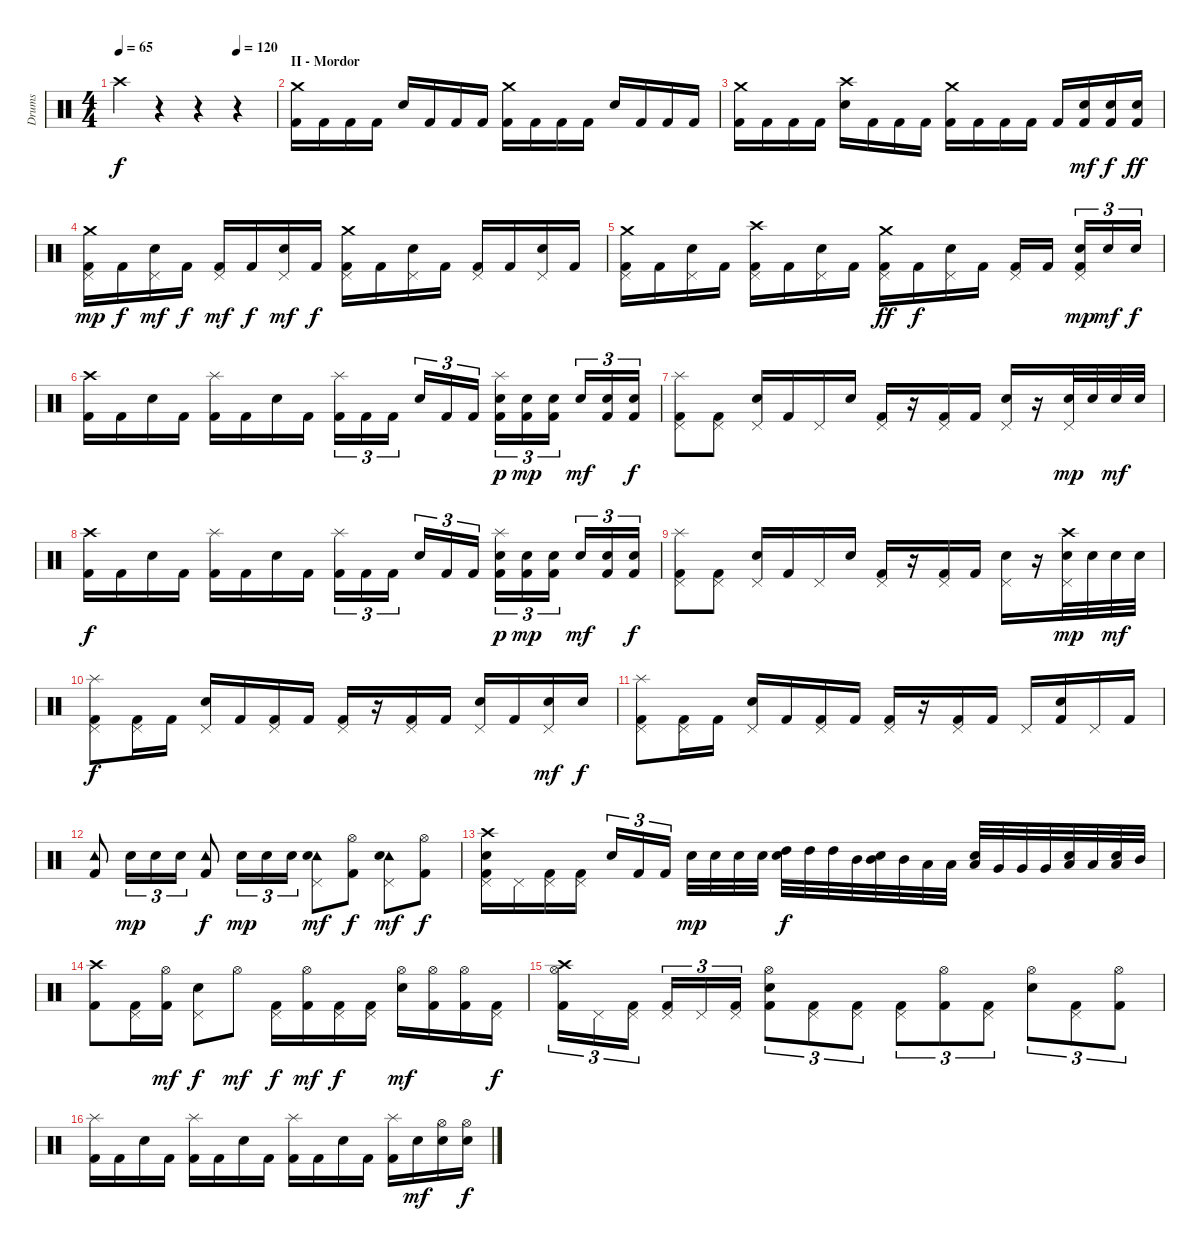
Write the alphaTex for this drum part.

\track ("Drums" "Drums") {instrument percussion}
\staff {score}
\articulation defaults
\ts (4 4)
\tempo 65
\tempo (120 0.75)
\clef neutral
\ks c "Crash high (hit)".4{dy f}
r.4 r.4 r.4 |
\section ("" "II - Mordor")
("Crash medium (hit)" "Kick (hit) 2").16 "Kick (hit) 2".16 "Kick (hit) 2".16 "Kick (hit) 2".16 "Electric Snare (hit)".16 "Kick (hit) 2".16 "Kick (hit) 2".16 "Kick (hit) 2".16 ("Crash medium (hit)" "Kick (hit) 2").16 "Kick (hit) 2".16 "Kick (hit) 2".16 "Kick (hit) 2".16 "Electric Snare (hit)".16 "Kick (hit) 2".16 "Kick (hit) 2".16 "Kick (hit) 2".16 |
("Crash medium (hit)" "Kick (hit) 2").16 "Kick (hit) 2".16 "Kick (hit) 2".16 "Kick (hit) 2".16 ("Crash high (hit)" "Electric Snare (hit)").16 "Kick (hit) 2".16 "Kick (hit) 2".16 "Kick (hit) 2".16 ("Crash medium (hit)" "Kick (hit) 2").16 "Kick (hit) 2".16 "Kick (hit) 2".16 "Kick (hit) 2".16 "Kick (hit) 2".16 ("Electric Snare (hit)" "Kick (hit) 2").16{dy mf} ("Electric Snare (hit)" "Kick (hit) 2").16{dy f} ("Electric Snare (hit)" "Kick (hit) 2").16{dy ff} |
("Crash medium (hit)" "Pedal Hi-Hat (hit)" "Kick (hit) 2").16{dy mp} "Kick (hit) 2".16{dy f} ("Pedal Hi-Hat (hit)" "Electric Snare (hit)").16{dy mf} "Kick (hit) 2".16{dy f} ("Pedal Hi-Hat (hit)" "Kick (hit) 2").16{dy mf} "Kick (hit) 2".16{dy f} ("Pedal Hi-Hat (hit)" "Electric Snare (hit)").16{dy mf} "Kick (hit) 2".16{dy f} ("Crash medium (hit)" "Pedal Hi-Hat (hit)" "Kick (hit) 2").16 "Kick (hit) 2".16 ("Pedal Hi-Hat (hit)" "Electric Snare (hit)").16 "Kick (hit) 2".16 ("Pedal Hi-Hat (hit)" "Kick (hit) 2").16 "Kick (hit) 2".16 ("Pedal Hi-Hat (hit)" "Electric Snare (hit)").16 "Kick (hit) 2".16 |
("Crash medium (hit)" "Pedal Hi-Hat (hit)" "Kick (hit) 2").16 "Kick (hit) 2".16 ("Pedal Hi-Hat (hit)" "Electric Snare (hit)").16 "Kick (hit) 2".16 ("Crash high (hit)" "Pedal Hi-Hat (hit)" "Kick (hit) 2").16 "Kick (hit) 2".16 ("Pedal Hi-Hat (hit)" "Electric Snare (hit)").16 "Kick (hit) 2".16 ("Crash medium (hit)" "Pedal Hi-Hat (hit)" "Kick (hit) 2").16{dy ff} "Kick (hit) 2".16{dy f} ("Pedal Hi-Hat (hit)" "Electric Snare (hit)").16 "Kick (hit) 2".16 ("Pedal Hi-Hat (hit)" "Kick (hit) 2").16 "Kick (hit) 2".16 ("Pedal Hi-Hat (hit)" "Electric Snare (hit)" "Kick (hit) 2").16{tu (3 2) dy mp} "Electric Snare (hit)".16{tu (3 2) dy mf} "Electric Snare (hit)".16{tu (3 2) dy f} |
("Crash high (hit)" "Kick (hit) 2").16 "Kick (hit) 2".16 "Electric Snare (hit)".16 "Kick (hit) 2".16 ("Splash (hit)" "Kick (hit) 2").16 "Kick (hit) 2".16 "Electric Snare (hit)".16 "Kick (hit) 2".16 ("Splash (hit)" "Kick (hit) 2").16{tu (3 2)} "Kick (hit) 2".16{tu (3 2)} "Kick (hit) 2".16{tu (3 2)} "Electric Snare (hit)".16{tu (3 2)} "Kick (hit) 2".16{tu (3 2)} "Kick (hit) 2".16{tu (3 2)} ("Splash (hit)" "Electric Snare (hit)" "Kick (hit) 2").16{tu (3 2) dy p} ("Electric Snare (hit)" "Kick (hit) 2").16{tu (3 2) dy mp} ("Electric Snare (hit)" "Kick (hit) 2").16{tu (3 2)} "Electric Snare (hit)".16{tu (3 2) dy mf} ("Electric Snare (hit)" "Kick (hit) 2").16{tu (3 2)} ("Electric Snare (hit)" "Kick (hit) 2").16{tu (3 2) dy f} |
("Splash (hit)" "Pedal Hi-Hat (hit)" "Kick (hit) 2").8 ("Pedal Hi-Hat (hit)" "Kick (hit) 2").8 ("Pedal Hi-Hat (hit)" "Electric Snare (hit)").16 "Kick (hit) 2".16 "Pedal Hi-Hat (hit)".16 "Electric Snare (hit)".16 ("Pedal Hi-Hat (hit)" "Kick (hit) 2").16 r.16 ("Pedal Hi-Hat (hit)" "Kick (hit) 2").16 "Kick (hit) 2".16 ("Pedal Hi-Hat (hit)" "Electric Snare (hit)").16 r.16 ("Pedal Hi-Hat (hit)" "Electric Snare (hit)").32{dy mp} "Electric Snare (hit)".32 "Electric Snare (hit)".32{dy mf} "Electric Snare (hit)".32 |
("Crash high (hit)" "Kick (hit) 2").16{dy f} "Kick (hit) 2".16 "Electric Snare (hit)".16 "Kick (hit) 2".16 ("Splash (hit)" "Kick (hit) 2").16 "Kick (hit) 2".16 "Electric Snare (hit)".16 "Kick (hit) 2".16 ("Splash (hit)" "Kick (hit) 2").16{tu (3 2)} "Kick (hit) 2".16{tu (3 2)} "Kick (hit) 2".16{tu (3 2)} "Electric Snare (hit)".16{tu (3 2)} "Kick (hit) 2".16{tu (3 2)} "Kick (hit) 2".16{tu (3 2)} ("Splash (hit)" "Electric Snare (hit)" "Kick (hit) 2").16{tu (3 2) dy p} ("Electric Snare (hit)" "Kick (hit) 2").16{tu (3 2) dy mp} ("Electric Snare (hit)" "Kick (hit) 2").16{tu (3 2)} "Electric Snare (hit)".16{tu (3 2) dy mf} ("Electric Snare (hit)" "Kick (hit) 2").16{tu (3 2)} ("Electric Snare (hit)" "Kick (hit) 2").16{tu (3 2) dy f} |
("Splash (hit)" "Pedal Hi-Hat (hit)" "Kick (hit) 2").8 ("Pedal Hi-Hat (hit)" "Kick (hit) 2").8 ("Pedal Hi-Hat (hit)" "Electric Snare (hit)").16 "Kick (hit) 2".16 "Pedal Hi-Hat (hit)".16 "Electric Snare (hit)".16 ("Pedal Hi-Hat (hit)" "Kick (hit) 2").16 r.16 ("Pedal Hi-Hat (hit)" "Kick (hit) 2").16 "Kick (hit) 2".16 ("Pedal Hi-Hat (hit)" "Electric Snare (hit)").16 r.16 ("Crash high (hit)" "Pedal Hi-Hat (hit)" "Electric Snare (hit)").32{dy mp} "Electric Snare (hit)".32 "Electric Snare (hit)".32{dy mf} "Electric Snare (hit)".32 |
("Splash (hit)" "Pedal Hi-Hat (hit)" "Kick (hit) 2").8{dy f} ("Pedal Hi-Hat (hit)" "Kick (hit) 2").16 "Kick (hit) 2".16 ("Pedal Hi-Hat (hit)" "Electric Snare (hit)").16 "Kick (hit) 2".16 ("Pedal Hi-Hat (hit)" "Kick (hit) 2").16 "Kick (hit) 2".16 ("Pedal Hi-Hat (hit)" "Kick (hit) 2").16 r.16 ("Pedal Hi-Hat (hit)" "Kick (hit) 2").16 "Kick (hit) 2".16 ("Pedal Hi-Hat (hit)" "Electric Snare (hit)").16 "Kick (hit) 2".16 ("Pedal Hi-Hat (hit)" "Electric Snare (hit)").16{dy mf} "Electric Snare (hit)".16{dy f} |
("Splash (hit)" "Pedal Hi-Hat (hit)" "Kick (hit) 2").8 ("Pedal Hi-Hat (hit)" "Kick (hit) 2").16 "Kick (hit) 2".16 ("Pedal Hi-Hat (hit)" "Electric Snare (hit)").16 "Kick (hit) 2".16 ("Pedal Hi-Hat (hit)" "Kick (hit) 2").16 "Kick (hit) 2".16 ("Pedal Hi-Hat (hit)" "Kick (hit) 2").16 r.16 ("Pedal Hi-Hat (hit)" "Kick (hit) 2").16 "Kick (hit) 2".16 "Pedal Hi-Hat (hit)".16 ("Electric Snare (hit)" "Kick (hit) 2").16 "Pedal Hi-Hat (hit)".16 "Kick (hit) 2".16 |
("Tambourine (hit)" "Kick (hit) 2").8 "Electric Snare (hit)".16{tu (3 2) dy mp} "Electric Snare (hit)".16{tu (3 2)} "Electric Snare (hit)".16{tu (3 2)} ("Tambourine (hit)" "Kick (hit) 2").8{dy f} "Electric Snare (hit)".16{tu (3 2) dy mp} "Electric Snare (hit)".16{tu (3 2)} "Electric Snare (hit)".16{tu (3 2)} ("Tambourine (hit)" "Pedal Hi-Hat (hit)" "Electric Snare (hit)").8{dy mf} ("Hi-Hat (open)" "Kick (hit) 2").8{dy f} ("Tambourine (hit)" "Pedal Hi-Hat (hit)" "Electric Snare (hit)").8{dy mf} ("Hi-Hat (open)" "Kick (hit) 2").8{dy f} |
("Crash high (hit)" "Pedal Hi-Hat (hit)" "Electric Snare (hit)" "Kick (hit) 2").16 "Pedal Hi-Hat (hit)".16 ("Pedal Hi-Hat (hit)" "Kick (hit) 2").16 ("Pedal Hi-Hat (hit)" "Kick (hit) 2").16 "Electric Snare (hit)".16{tu (3 2)} "Kick (hit) 2".16{tu (3 2)} "Kick (hit) 2".16{tu (3 2)} "Electric Snare (hit)".32{dy mp} "Electric Snare (hit)".32 "Electric Snare (hit)".32 "Electric Snare (hit)".32 ("Electric Snare (hit)" "High Tom (hit)").32{dy f} "High Tom (hit)".32 "High Tom (hit)".32 "Mid Tom (hit)".32 ("Electric Snare (hit)" "Mid Tom (hit)").32 "Mid Tom (hit)".32 "Low Tom (hit)".32 "Low Tom (hit)".32 ("Electric Snare (hit)" "Low Tom (hit)").32 "Very Low Tom (hit)".32 "Very Low Tom (hit)".32 "Very Low Tom (hit)".32 ("Electric Snare (hit)" "Low Tom (hit)").32 "Low Tom (hit)".32 ("Electric Snare (hit)" "Low Tom (hit)").32 "Mid Tom (hit)".32 |
("Crash high (hit)" "Kick (hit) 2").8 ("Pedal Hi-Hat (hit)" "Kick (hit) 2").16 ("Hi-Hat (open)" "Kick (hit) 2").16{dy mf} ("Pedal Hi-Hat (hit)" "Electric Snare (hit)").8{dy f} "Hi-Hat (open)".8{dy mf} ("Pedal Hi-Hat (hit)" "Kick (hit) 2").16{dy f} ("Hi-Hat (open)" "Kick (hit) 2").16{dy mf} ("Pedal Hi-Hat (hit)" "Kick (hit) 2").16{dy f} ("Pedal Hi-Hat (hit)" "Kick (hit) 2").16 ("Hi-Hat (open)" "Electric Snare (hit)").16{dy mf} ("Hi-Hat (open)" "Kick (hit) 2").16 ("Hi-Hat (open)" "Kick (hit) 2").16 ("Pedal Hi-Hat (hit)" "Kick (hit) 2").16{dy f} |
("Crash high (hit)" "Hi-Hat (open)" "Kick (hit) 2").16{tu (3 2)} "Pedal Hi-Hat (hit)".16{tu (3 2)} ("Pedal Hi-Hat (hit)" "Kick (hit) 2").16{tu (3 2)} ("Pedal Hi-Hat (hit)" "Kick (hit) 2").16{tu (3 2)} "Pedal Hi-Hat (hit)".16{tu (3 2)} ("Pedal Hi-Hat (hit)" "Kick (hit) 2").16{tu (3 2)} ("Hi-Hat (open)" "Electric Snare (hit)" "Kick (hit) 2").8{tu (3 2)} ("Pedal Hi-Hat (hit)" "Kick (hit) 2").8{tu (3 2)} ("Pedal Hi-Hat (hit)" "Kick (hit) 2").8{tu (3 2)} ("Pedal Hi-Hat (hit)" "Kick (hit) 2").8{tu (3 2)} ("Hi-Hat (open)" "Kick (hit) 2").8{tu (3 2)} ("Pedal Hi-Hat (hit)" "Kick (hit) 2").8{tu (3 2)} ("Hi-Hat (open)" "Electric Snare (hit)").8{tu (3 2)} ("Pedal Hi-Hat (hit)" "Kick (hit) 2").8{tu (3 2)} ("Hi-Hat (open)" "Kick (hit) 2").8{tu (3 2)} |
("Splash (hit)" "Kick (hit) 2").16 "Kick (hit) 2".16 "Electric Snare (hit)".16 "Kick (hit) 2".16 ("Splash (hit)" "Kick (hit) 2").16 "Kick (hit) 2".16 "Electric Snare (hit)".16 "Kick (hit) 2".16 ("Splash (hit)" "Kick (hit) 2").16 "Kick (hit) 2".16 "Electric Snare (hit)".16 "Kick (hit) 2".16 ("Splash (hit)" "Kick (hit) 2").16 "Electric Snare (hit)".16{dy mf} ("Hi-Hat (open)" "Electric Snare (hit)").16 ("Hi-Hat (open)" "Electric Snare (hit)").16{dy f}
